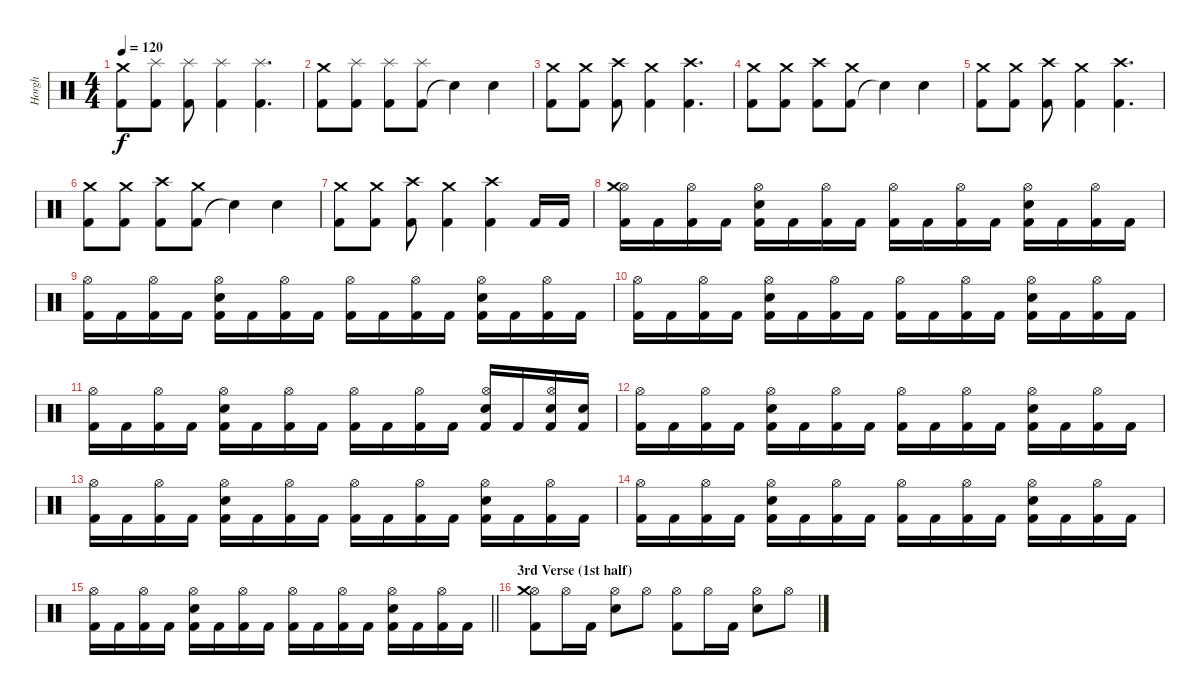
\track ("Horgh" "Horgh") {instrument percussion}
\staff {score}
\articulation defaults
\ts (4 4)
\tempo 120
\clef neutral
\ks c
("Kick (hit) 2" "Crash medium (hit)").8{dy f} ("Kick (hit) 2" "Splash (hit)").8 ("Kick (hit) 2" "Splash (hit)").8 ("Kick (hit) 2" "Splash (hit)").4 ("Kick (hit) 2" "Splash (hit)").4{d} |
("Kick (hit) 2" "Crash medium (hit)").8 ("Kick (hit) 2" "Splash (hit)").8 ("Kick (hit) 2" "Splash (hit)").8 ("Kick (hit) 2" "Splash (hit)").8 "Snare (hit)"{t}.4 "Snare (hit) 2".4 |
("Kick (hit) 2" "Crash medium (hit)").8 ("Kick (hit) 2" "Crash medium (hit)").8 ("Kick (hit) 2" "Crash high (hit)").8 ("Kick (hit) 2" "Crash medium (hit)").4 ("Kick (hit) 2" "Crash high (hit)").4{d} |
("Kick (hit) 2" "Crash medium (hit)").8 ("Kick (hit) 2" "Crash medium (hit)").8 ("Kick (hit) 2" "Crash high (hit)").8 ("Kick (hit) 2" "Crash medium (hit)").8 "Snare (hit)"{t}.4 "Snare (hit) 2".4 |
("Kick (hit) 2" "Crash medium (hit)").8 ("Kick (hit) 2" "Crash medium (hit)").8 ("Kick (hit) 2" "Crash high (hit)").8 ("Kick (hit) 2" "Crash medium (hit)").4 ("Kick (hit) 2" "Crash high (hit)").4{d} |
("Kick (hit) 2" "Crash medium (hit)").8 ("Kick (hit) 2" "Crash medium (hit)").8 ("Kick (hit) 2" "Crash high (hit)").8 ("Kick (hit) 2" "Crash medium (hit)").8 "Snare (hit)"{t}.4 "Snare (hit) 2".4 |
("Kick (hit) 2" "Crash medium (hit)").8 ("Kick (hit) 2" "Crash medium (hit)").8 ("Kick (hit) 2" "Crash high (hit)").8 ("Kick (hit) 2" "Crash medium (hit)").4 ("Kick (hit) 2" "Crash high (hit)").4 "Kick (hit) 2".16 "Kick (hit) 2".16 |
("Kick (hit) 2" "Hi-Hat (open)" "Crash medium (hit)").16 "Kick (hit) 2".16 ("Kick (hit) 2" "Hi-Hat (open)").16 "Kick (hit) 2".16 ("Kick (hit) 2" "Electric Snare (hit)" "Hi-Hat (open)").16 "Kick (hit) 2".16 ("Kick (hit) 2" "Hi-Hat (open)").16 "Kick (hit) 2".16 ("Kick (hit) 2" "Hi-Hat (open)").16 "Kick (hit) 2".16 ("Kick (hit) 2" "Hi-Hat (open)").16 "Kick (hit) 2".16 ("Kick (hit) 2" "Electric Snare (hit)" "Hi-Hat (open)").16 "Kick (hit) 2".16 ("Kick (hit) 2" "Hi-Hat (open)").16 "Kick (hit) 2".16 |
("Kick (hit) 2" "Hi-Hat (open)").16 "Kick (hit) 2".16 ("Kick (hit) 2" "Hi-Hat (open)").16 "Kick (hit) 2".16 ("Kick (hit) 2" "Electric Snare (hit)" "Hi-Hat (open)").16 "Kick (hit) 2".16 ("Kick (hit) 2" "Hi-Hat (open)").16 "Kick (hit) 2".16 ("Kick (hit) 2" "Hi-Hat (open)").16 "Kick (hit) 2".16 ("Kick (hit) 2" "Hi-Hat (open)").16 "Kick (hit) 2".16 ("Kick (hit) 2" "Electric Snare (hit)" "Hi-Hat (open)").16 "Kick (hit) 2".16 ("Kick (hit) 2" "Hi-Hat (open)").16 "Kick (hit) 2".16 |
("Kick (hit) 2" "Hi-Hat (open)").16 "Kick (hit) 2".16 ("Kick (hit) 2" "Hi-Hat (open)").16 "Kick (hit) 2".16 ("Kick (hit) 2" "Electric Snare (hit)" "Hi-Hat (open)").16 "Kick (hit) 2".16 ("Kick (hit) 2" "Hi-Hat (open)").16 "Kick (hit) 2".16 ("Kick (hit) 2" "Hi-Hat (open)").16 "Kick (hit) 2".16 ("Kick (hit) 2" "Hi-Hat (open)").16 "Kick (hit) 2".16 ("Kick (hit) 2" "Electric Snare (hit)" "Hi-Hat (open)").16 "Kick (hit) 2".16 ("Kick (hit) 2" "Hi-Hat (open)").16 "Kick (hit) 2".16 |
("Kick (hit) 2" "Hi-Hat (open)").16 "Kick (hit) 2".16 ("Kick (hit) 2" "Hi-Hat (open)").16 "Kick (hit) 2".16 ("Kick (hit) 2" "Electric Snare (hit)" "Hi-Hat (open)").16 "Kick (hit) 2".16 ("Kick (hit) 2" "Hi-Hat (open)").16 "Kick (hit) 2".16 ("Kick (hit) 2" "Hi-Hat (open)").16 "Kick (hit) 2".16 ("Kick (hit) 2" "Hi-Hat (open)").16 "Kick (hit) 2".16 ("Kick (hit) 2" "Electric Snare (hit)" "Hi-Hat (open)").16 "Kick (hit) 2".16 ("Kick (hit) 2" "Electric Snare (hit)" "Hi-Hat (open)").16 ("Kick (hit) 2" "Electric Snare (hit)").16 |
("Kick (hit) 2" "Hi-Hat (open)").16 "Kick (hit) 2".16 ("Kick (hit) 2" "Hi-Hat (open)").16 "Kick (hit) 2".16 ("Kick (hit) 2" "Electric Snare (hit)" "Hi-Hat (open)").16 "Kick (hit) 2".16 ("Kick (hit) 2" "Hi-Hat (open)").16 "Kick (hit) 2".16 ("Kick (hit) 2" "Hi-Hat (open)").16 "Kick (hit) 2".16 ("Kick (hit) 2" "Hi-Hat (open)").16 "Kick (hit) 2".16 ("Kick (hit) 2" "Electric Snare (hit)" "Hi-Hat (open)").16 "Kick (hit) 2".16 ("Kick (hit) 2" "Hi-Hat (open)").16 "Kick (hit) 2".16 |
("Kick (hit) 2" "Hi-Hat (open)").16 "Kick (hit) 2".16 ("Kick (hit) 2" "Hi-Hat (open)").16 "Kick (hit) 2".16 ("Kick (hit) 2" "Electric Snare (hit)" "Hi-Hat (open)").16 "Kick (hit) 2".16 ("Kick (hit) 2" "Hi-Hat (open)").16 "Kick (hit) 2".16 ("Kick (hit) 2" "Hi-Hat (open)").16 "Kick (hit) 2".16 ("Kick (hit) 2" "Hi-Hat (open)").16 "Kick (hit) 2".16 ("Kick (hit) 2" "Electric Snare (hit)" "Hi-Hat (open)").16 "Kick (hit) 2".16 ("Kick (hit) 2" "Hi-Hat (open)").16 "Kick (hit) 2".16 |
("Kick (hit) 2" "Hi-Hat (open)").16 "Kick (hit) 2".16 ("Kick (hit) 2" "Hi-Hat (open)").16 "Kick (hit) 2".16 ("Kick (hit) 2" "Electric Snare (hit)" "Hi-Hat (open)").16 "Kick (hit) 2".16 ("Kick (hit) 2" "Hi-Hat (open)").16 "Kick (hit) 2".16 ("Kick (hit) 2" "Hi-Hat (open)").16 "Kick (hit) 2".16 ("Kick (hit) 2" "Hi-Hat (open)").16 "Kick (hit) 2".16 ("Kick (hit) 2" "Electric Snare (hit)" "Hi-Hat (open)").16 "Kick (hit) 2".16 ("Kick (hit) 2" "Hi-Hat (open)").16 "Kick (hit) 2".16 |
\barLineRight lightlight
("Kick (hit) 2" "Hi-Hat (open)").16 "Kick (hit) 2".16 ("Kick (hit) 2" "Hi-Hat (open)").16 "Kick (hit) 2".16 ("Kick (hit) 2" "Electric Snare (hit)" "Hi-Hat (open)").16 "Kick (hit) 2".16 ("Kick (hit) 2" "Hi-Hat (open)").16 "Kick (hit) 2".16 ("Kick (hit) 2" "Hi-Hat (open)").16 "Kick (hit) 2".16 ("Kick (hit) 2" "Hi-Hat (open)").16 "Kick (hit) 2".16 ("Kick (hit) 2" "Electric Snare (hit)" "Hi-Hat (open)").16 "Kick (hit) 2".16 ("Kick (hit) 2" "Hi-Hat (open)").16 "Kick (hit) 2".16 |
\section ("" "3rd Verse (1st half)")
("Kick (hit) 2" "Hi-Hat (open)" "Crash medium (hit)").8 "Hi-Hat (open)".16 "Kick (hit) 2".16 ("Electric Snare (hit)" "Hi-Hat (open)").8 "Hi-Hat (open)".8 ("Kick (hit) 2" "Hi-Hat (open)").8 "Hi-Hat (open)".16 "Kick (hit) 2".16 ("Electric Snare (hit)" "Hi-Hat (open)").8 "Hi-Hat (open)".8
